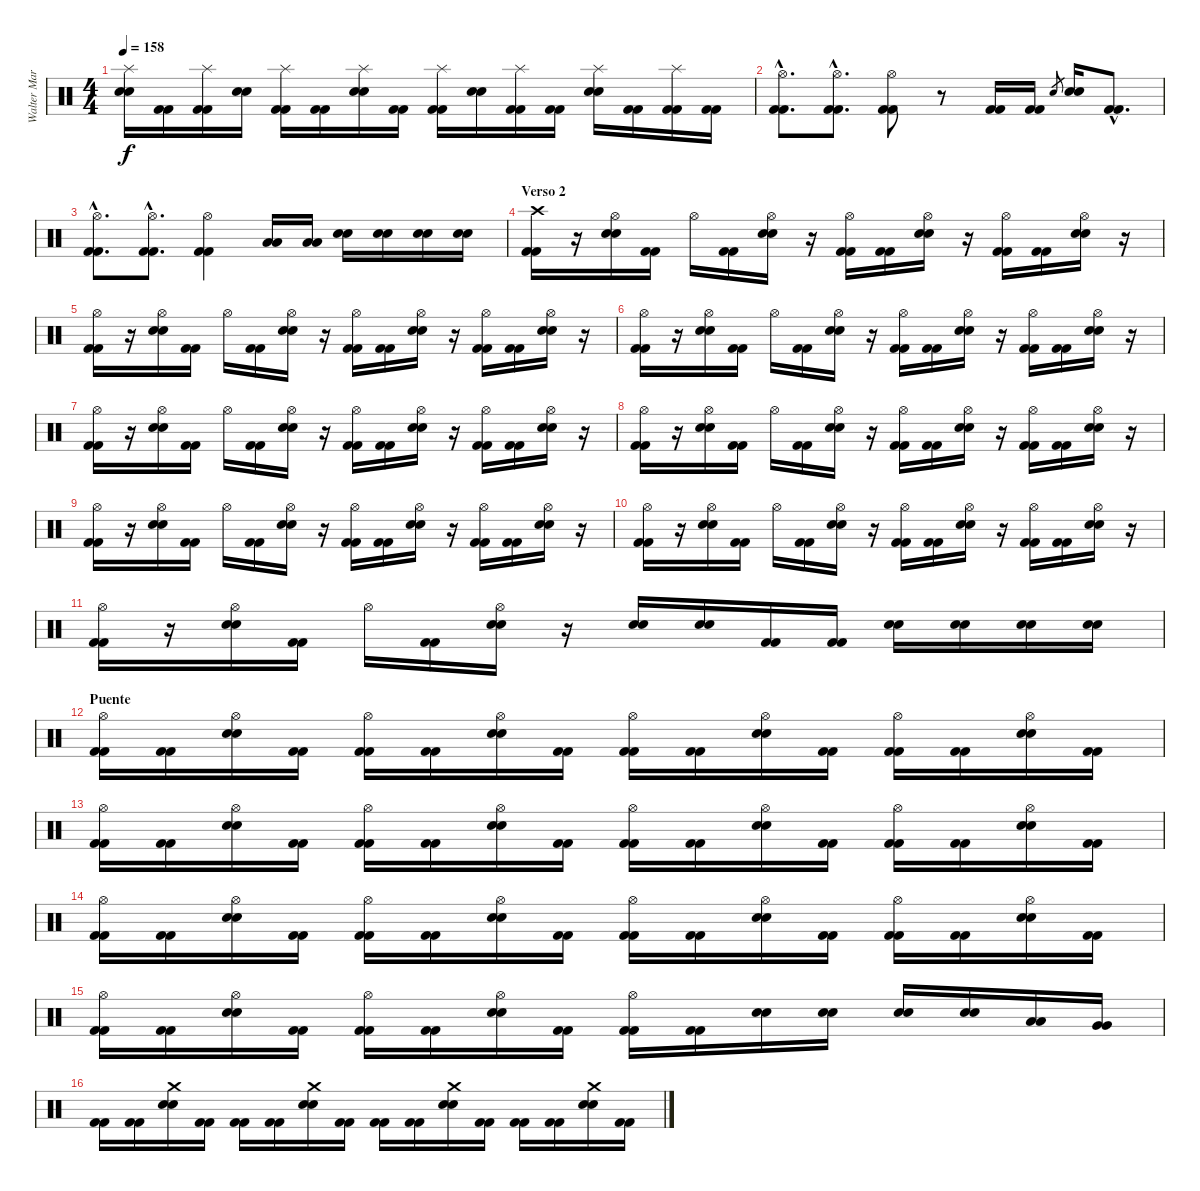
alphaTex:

\track ("Walter Martinez (Bateria)" "Walter Mar") {instrument percussion}
\staff {score}
\articulation defaults
\ts (4 4)
\tempo 158
\clef neutral
\ks c
("Splash (hit)" "Snare (hit) 2" "Snare (hit) 2").16{dy f} ("Kick (hit) 2" "Kick (hit) 2").16 ("Splash (hit)" "Kick (hit) 2" "Kick (hit) 2").16 ("Snare (hit) 2" "Snare (hit) 2").16 ("Splash (hit)" "Kick (hit) 2" "Kick (hit) 2").16 ("Kick (hit) 2" "Kick (hit) 2").16 ("Splash (hit)" "Snare (hit) 2" "Snare (hit) 2").16 ("Kick (hit) 2" "Kick (hit) 2").16 ("Splash (hit)" "Kick (hit) 2" "Kick (hit) 2").16 ("Snare (hit) 2" "Snare (hit) 2").16 ("Splash (hit)" "Kick (hit) 2" "Kick (hit) 2").16 ("Kick (hit) 2" "Kick (hit) 2").16 ("Splash (hit)" "Snare (hit) 2" "Snare (hit) 2").16 ("Kick (hit) 2" "Kick (hit) 2").16 ("Splash (hit)" "Kick (hit) 2" "Kick (hit) 2").16 ("Kick (hit) 2" "Kick (hit) 2").16 |
("Hi-Hat (open)"{hac} "Kick (hit) 2"{hac} "Kick (hit) 2"{hac}).8{d} ("Hi-Hat (open)"{hac} "Kick (hit) 2"{hac} "Kick (hit) 2"{hac}).8{d} ("Hi-Hat (open)" "Kick (hit) 2" "Kick (hit) 2").8 r.8 ("Kick (hit) 2" "Kick (hit) 2").16 ("Kick (hit) 2" "Kick (hit) 2").16 "Snare (hit) 2".8{gr} ("Snare (hit) 2" "Snare (hit) 2").16 ("Kick (hit) 2"{hac} "Kick (hit) 2"{hac}).8{d} |
("Hi-Hat (open)"{hac} "Kick (hit) 2"{hac} "Kick (hit) 2"{hac}).8{d} ("Hi-Hat (open)"{hac} "Kick (hit) 2"{hac} "Kick (hit) 2"{hac}).8{d} ("Hi-Hat (open)" "Kick (hit) 2" "Kick (hit) 2").4 ("Low Tom (hit)" "Low Tom (hit)").16 ("Low Tom (hit)" "Low Tom (hit)").16 ("Snare (hit) 2" "Snare (hit) 2").16 ("Snare (hit) 2" "Snare (hit) 2").16 ("Snare (hit) 2" "Snare (hit) 2").16 ("Snare (hit) 2" "Snare (hit) 2").16 |
\section ("" "Verso 2")
("Crash high (hit)" "Kick (hit) 2" "Kick (hit) 2").16 r.16 ("Hi-Hat (open)" "Snare (hit) 2" "Snare (hit) 2").16 ("Kick (hit) 2" "Kick (hit) 2").16 "Hi-Hat (open)".16 ("Kick (hit) 2" "Kick (hit) 2").16 ("Hi-Hat (open)" "Snare (hit) 2" "Snare (hit) 2").16 r.16 ("Hi-Hat (open)" "Kick (hit) 2" "Kick (hit) 2").16 ("Kick (hit) 2" "Kick (hit) 2").16 ("Hi-Hat (open)" "Snare (hit) 2" "Snare (hit) 2").16 r.16 ("Hi-Hat (open)" "Kick (hit) 2" "Kick (hit) 2").16 ("Kick (hit) 2" "Kick (hit) 2").16 ("Hi-Hat (open)" "Snare (hit) 2" "Snare (hit) 2").16 r.16 |
("Hi-Hat (open)" "Kick (hit) 2" "Kick (hit) 2").16 r.16 ("Hi-Hat (open)" "Snare (hit) 2" "Snare (hit) 2").16 ("Kick (hit) 2" "Kick (hit) 2").16 "Hi-Hat (open)".16 ("Kick (hit) 2" "Kick (hit) 2").16 ("Hi-Hat (open)" "Snare (hit) 2" "Snare (hit) 2").16 r.16 ("Hi-Hat (open)" "Kick (hit) 2" "Kick (hit) 2").16 ("Kick (hit) 2" "Kick (hit) 2").16 ("Hi-Hat (open)" "Snare (hit) 2" "Snare (hit) 2").16 r.16 ("Hi-Hat (open)" "Kick (hit) 2" "Kick (hit) 2").16 ("Kick (hit) 2" "Kick (hit) 2").16 ("Hi-Hat (open)" "Snare (hit) 2" "Snare (hit) 2").16 r.16 |
("Hi-Hat (open)" "Kick (hit) 2" "Kick (hit) 2").16 r.16 ("Hi-Hat (open)" "Snare (hit) 2" "Snare (hit) 2").16 ("Kick (hit) 2" "Kick (hit) 2").16 "Hi-Hat (open)".16 ("Kick (hit) 2" "Kick (hit) 2").16 ("Hi-Hat (open)" "Snare (hit) 2" "Snare (hit) 2").16 r.16 ("Hi-Hat (open)" "Kick (hit) 2" "Kick (hit) 2").16 ("Kick (hit) 2" "Kick (hit) 2").16 ("Hi-Hat (open)" "Snare (hit) 2" "Snare (hit) 2").16 r.16 ("Hi-Hat (open)" "Kick (hit) 2" "Kick (hit) 2").16 ("Kick (hit) 2" "Kick (hit) 2").16 ("Hi-Hat (open)" "Snare (hit) 2" "Snare (hit) 2").16 r.16 |
("Hi-Hat (open)" "Kick (hit) 2" "Kick (hit) 2").16 r.16 ("Hi-Hat (open)" "Snare (hit) 2" "Snare (hit) 2").16 ("Kick (hit) 2" "Kick (hit) 2").16 "Hi-Hat (open)".16 ("Kick (hit) 2" "Kick (hit) 2").16 ("Hi-Hat (open)" "Snare (hit) 2" "Snare (hit) 2").16 r.16 ("Hi-Hat (open)" "Kick (hit) 2" "Kick (hit) 2").16 ("Kick (hit) 2" "Kick (hit) 2").16 ("Hi-Hat (open)" "Snare (hit) 2" "Snare (hit) 2").16 r.16 ("Hi-Hat (open)" "Kick (hit) 2" "Kick (hit) 2").16 ("Kick (hit) 2" "Kick (hit) 2").16 ("Hi-Hat (open)" "Snare (hit) 2" "Snare (hit) 2").16 r.16 |
("Hi-Hat (open)" "Kick (hit) 2" "Kick (hit) 2").16 r.16 ("Hi-Hat (open)" "Snare (hit) 2" "Snare (hit) 2").16 ("Kick (hit) 2" "Kick (hit) 2").16 "Hi-Hat (open)".16 ("Kick (hit) 2" "Kick (hit) 2").16 ("Hi-Hat (open)" "Snare (hit) 2" "Snare (hit) 2").16 r.16 ("Hi-Hat (open)" "Kick (hit) 2" "Kick (hit) 2").16 ("Kick (hit) 2" "Kick (hit) 2").16 ("Hi-Hat (open)" "Snare (hit) 2" "Snare (hit) 2").16 r.16 ("Hi-Hat (open)" "Kick (hit) 2" "Kick (hit) 2").16 ("Kick (hit) 2" "Kick (hit) 2").16 ("Hi-Hat (open)" "Snare (hit) 2" "Snare (hit) 2").16 r.16 |
("Hi-Hat (open)" "Kick (hit) 2" "Kick (hit) 2").16 r.16 ("Hi-Hat (open)" "Snare (hit) 2" "Snare (hit) 2").16 ("Kick (hit) 2" "Kick (hit) 2").16 "Hi-Hat (open)".16 ("Kick (hit) 2" "Kick (hit) 2").16 ("Hi-Hat (open)" "Snare (hit) 2" "Snare (hit) 2").16 r.16 ("Hi-Hat (open)" "Kick (hit) 2" "Kick (hit) 2").16 ("Kick (hit) 2" "Kick (hit) 2").16 ("Hi-Hat (open)" "Snare (hit) 2" "Snare (hit) 2").16 r.16 ("Hi-Hat (open)" "Kick (hit) 2" "Kick (hit) 2").16 ("Kick (hit) 2" "Kick (hit) 2").16 ("Hi-Hat (open)" "Snare (hit) 2" "Snare (hit) 2").16 r.16 |
("Hi-Hat (open)" "Kick (hit) 2" "Kick (hit) 2").16 r.16 ("Hi-Hat (open)" "Snare (hit) 2" "Snare (hit) 2").16 ("Kick (hit) 2" "Kick (hit) 2").16 "Hi-Hat (open)".16 ("Kick (hit) 2" "Kick (hit) 2").16 ("Hi-Hat (open)" "Snare (hit) 2" "Snare (hit) 2").16 r.16 ("Hi-Hat (open)" "Kick (hit) 2" "Kick (hit) 2").16 ("Kick (hit) 2" "Kick (hit) 2").16 ("Hi-Hat (open)" "Snare (hit) 2" "Snare (hit) 2").16 r.16 ("Hi-Hat (open)" "Kick (hit) 2" "Kick (hit) 2").16 ("Kick (hit) 2" "Kick (hit) 2").16 ("Hi-Hat (open)" "Snare (hit) 2" "Snare (hit) 2").16 r.16 |
("Hi-Hat (open)" "Kick (hit) 2" "Kick (hit) 2").16 r.16 ("Hi-Hat (open)" "Snare (hit) 2" "Snare (hit) 2").16 ("Kick (hit) 2" "Kick (hit) 2").16 "Hi-Hat (open)".16 ("Kick (hit) 2" "Kick (hit) 2").16 ("Hi-Hat (open)" "Snare (hit) 2" "Snare (hit) 2").16 r.16 ("Snare (hit) 2" "Snare (hit) 2").16 ("Snare (hit) 2" "Snare (hit) 2").16 ("Kick (hit) 2" "Kick (hit) 2").16 ("Kick (hit) 2" "Kick (hit) 2").16 ("Snare (hit) 2" "Snare (hit) 2").16 ("Snare (hit) 2" "Snare (hit) 2").16 ("Snare (hit) 2" "Snare (hit) 2").16 ("Snare (hit) 2" "Snare (hit) 2").16 |
\section ("" "Puente")
("Hi-Hat (open)" "Kick (hit) 2" "Kick (hit) 2").16 ("Kick (hit) 2" "Kick (hit) 2").16 ("Hi-Hat (open)" "Snare (hit) 2" "Snare (hit) 2").16 ("Kick (hit) 2" "Kick (hit) 2").16 ("Hi-Hat (open)" "Kick (hit) 2" "Kick (hit) 2").16 ("Kick (hit) 2" "Kick (hit) 2").16 ("Hi-Hat (open)" "Snare (hit) 2" "Snare (hit) 2").16 ("Kick (hit) 2" "Kick (hit) 2").16 ("Hi-Hat (open)" "Kick (hit) 2" "Kick (hit) 2").16 ("Kick (hit) 2" "Kick (hit) 2").16 ("Hi-Hat (open)" "Snare (hit) 2" "Snare (hit) 2").16 ("Kick (hit) 2" "Kick (hit) 2").16 ("Hi-Hat (open)" "Kick (hit) 2" "Kick (hit) 2").16 ("Kick (hit) 2" "Kick (hit) 2").16 ("Hi-Hat (open)" "Snare (hit) 2" "Snare (hit) 2").16 ("Kick (hit) 2" "Kick (hit) 2").16 |
("Hi-Hat (open)" "Kick (hit) 2" "Kick (hit) 2").16 ("Kick (hit) 2" "Kick (hit) 2").16 ("Hi-Hat (open)" "Snare (hit) 2" "Snare (hit) 2").16 ("Kick (hit) 2" "Kick (hit) 2").16 ("Hi-Hat (open)" "Kick (hit) 2" "Kick (hit) 2").16 ("Kick (hit) 2" "Kick (hit) 2").16 ("Hi-Hat (open)" "Snare (hit) 2" "Snare (hit) 2").16 ("Kick (hit) 2" "Kick (hit) 2").16 ("Hi-Hat (open)" "Kick (hit) 2" "Kick (hit) 2").16 ("Kick (hit) 2" "Kick (hit) 2").16 ("Hi-Hat (open)" "Snare (hit) 2" "Snare (hit) 2").16 ("Kick (hit) 2" "Kick (hit) 2").16 ("Hi-Hat (open)" "Kick (hit) 2" "Kick (hit) 2").16 ("Kick (hit) 2" "Kick (hit) 2").16 ("Hi-Hat (open)" "Snare (hit) 2" "Snare (hit) 2").16 ("Kick (hit) 2" "Kick (hit) 2").16 |
("Hi-Hat (open)" "Kick (hit) 2" "Kick (hit) 2").16 ("Kick (hit) 2" "Kick (hit) 2").16 ("Hi-Hat (open)" "Snare (hit) 2" "Snare (hit) 2").16 ("Kick (hit) 2" "Kick (hit) 2").16 ("Hi-Hat (open)" "Kick (hit) 2" "Kick (hit) 2").16 ("Kick (hit) 2" "Kick (hit) 2").16 ("Hi-Hat (open)" "Snare (hit) 2" "Snare (hit) 2").16 ("Kick (hit) 2" "Kick (hit) 2").16 ("Hi-Hat (open)" "Kick (hit) 2" "Kick (hit) 2").16 ("Kick (hit) 2" "Kick (hit) 2").16 ("Hi-Hat (open)" "Snare (hit) 2" "Snare (hit) 2").16 ("Kick (hit) 2" "Kick (hit) 2").16 ("Hi-Hat (open)" "Kick (hit) 2" "Kick (hit) 2").16 ("Kick (hit) 2" "Kick (hit) 2").16 ("Hi-Hat (open)" "Snare (hit) 2" "Snare (hit) 2").16 ("Kick (hit) 2" "Kick (hit) 2").16 |
("Hi-Hat (open)" "Kick (hit) 2" "Kick (hit) 2").16 ("Kick (hit) 2" "Kick (hit) 2").16 ("Hi-Hat (open)" "Snare (hit) 2" "Snare (hit) 2").16 ("Kick (hit) 2" "Kick (hit) 2").16 ("Hi-Hat (open)" "Kick (hit) 2" "Kick (hit) 2").16 ("Kick (hit) 2" "Kick (hit) 2").16 ("Hi-Hat (open)" "Snare (hit) 2" "Snare (hit) 2").16 ("Kick (hit) 2" "Kick (hit) 2").16 ("Hi-Hat (open)" "Kick (hit) 2" "Kick (hit) 2").16 ("Kick (hit) 2" "Kick (hit) 2").16 ("Snare (hit) 2" "Snare (hit) 2").16 ("Snare (hit) 2" "Snare (hit) 2").16 ("Snare (hit) 2" "Snare (hit) 2").16 ("Snare (hit) 2" "Snare (hit) 2").16 ("Low Tom (hit)" "Low Tom (hit)").16 ("Very Low Tom (hit)" "Very Low Tom (hit)").16 |
("Kick (hit) 2" "Kick (hit) 2").16 ("Kick (hit) 2" "Kick (hit) 2").16 ("Crash medium (hit)" "Snare (hit) 2" "Snare (hit) 2").16 ("Kick (hit) 2" "Kick (hit) 2").16 ("Kick (hit) 2" "Kick (hit) 2").16 ("Kick (hit) 2" "Kick (hit) 2").16 ("Crash medium (hit)" "Snare (hit) 2" "Snare (hit) 2").16 ("Kick (hit) 2" "Kick (hit) 2").16 ("Kick (hit) 2" "Kick (hit) 2").16 ("Kick (hit) 2" "Kick (hit) 2").16 ("Crash medium (hit)" "Snare (hit) 2" "Snare (hit) 2").16 ("Kick (hit) 2" "Kick (hit) 2").16 ("Kick (hit) 2" "Kick (hit) 2").16 ("Kick (hit) 2" "Kick (hit) 2").16 ("Crash medium (hit)" "Snare (hit) 2" "Snare (hit) 2").16 ("Kick (hit) 2" "Kick (hit) 2").16
